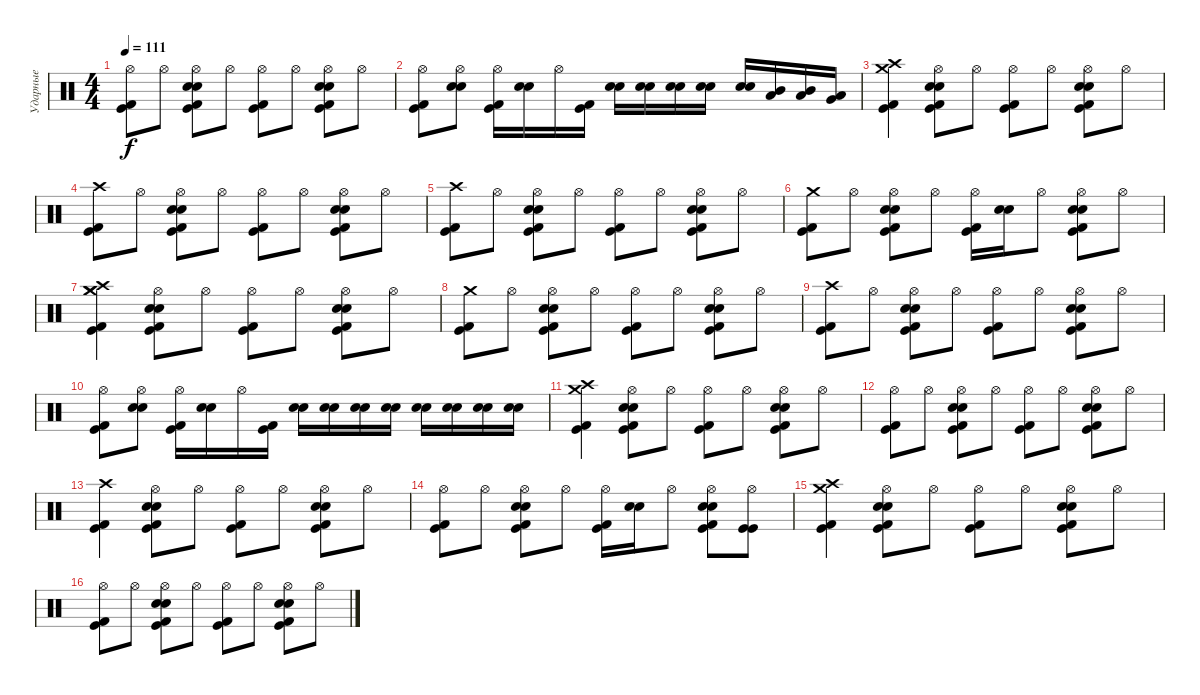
\track ("Ударные" "Ударные") {instrument percussion}
\staff {score}
\articulation defaults
\ts (4 4)
\tempo 111
\clef neutral
\ks c
("Hi-Hat (open)" "Kick (hit)" "Kick (hit) 2").8{dy f} "Hi-Hat (open)".8 ("Hi-Hat (open)" "Kick (hit)" "Kick (hit) 2" "Snare (hit) 2" "Electric Snare (hit)").8 "Hi-Hat (open)".8 ("Hi-Hat (open)" "Kick (hit)" "Kick (hit) 2").8 "Hi-Hat (open)".8 ("Hi-Hat (open)" "Kick (hit)" "Kick (hit) 2" "Snare (hit) 2" "Electric Snare (hit)").8 "Hi-Hat (open)".8 |
("Hi-Hat (open)" "Kick (hit)" "Kick (hit) 2").8 ("Hi-Hat (open)" "Snare (hit) 2" "Electric Snare (hit)").8 ("Hi-Hat (open)" "Kick (hit)" "Kick (hit) 2").16 ("Snare (hit) 2" "Electric Snare (hit)").16 "Hi-Hat (open)".16 ("Kick (hit)" "Kick (hit) 2").16 ("Snare (hit) 2" "Electric Snare (hit)").16 ("Snare (hit) 2" "Electric Snare (hit)").16 ("Snare (hit) 2" "Electric Snare (hit)").16 ("Snare (hit) 2" "Electric Snare (hit)").16 ("Snare (hit) 2" "Electric Snare (hit)").16 ("Mid Tom (hit)" "Low Tom (hit)").16 ("Mid Tom (hit)" "Low Tom (hit)").16 ("Very Low Tom (hit)" "Low Floor Tom (hit)").16 |
("Crash high (hit)" "Kick (hit)" "Kick (hit) 2" "Crash medium (hit)").4 ("Hi-Hat (open)" "Kick (hit)" "Kick (hit) 2" "Snare (hit) 2" "Electric Snare (hit)").8 "Hi-Hat (open)".8 ("Hi-Hat (open)" "Kick (hit)" "Kick (hit) 2").8 "Hi-Hat (open)".8 ("Hi-Hat (open)" "Kick (hit)" "Kick (hit) 2" "Snare (hit) 2" "Electric Snare (hit)").8 "Hi-Hat (open)".8 |
("Crash high (hit)" "Kick (hit)" "Kick (hit) 2").8 "Hi-Hat (open)".8 ("Hi-Hat (open)" "Kick (hit)" "Kick (hit) 2" "Snare (hit) 2" "Electric Snare (hit)").8 "Hi-Hat (open)".8 ("Hi-Hat (open)" "Kick (hit)" "Kick (hit) 2").8 "Hi-Hat (open)".8 ("Hi-Hat (open)" "Kick (hit)" "Kick (hit) 2" "Snare (hit) 2" "Electric Snare (hit)").8 "Hi-Hat (open)".8 |
("Crash high (hit)" "Kick (hit)" "Kick (hit) 2").8 "Hi-Hat (open)".8 ("Hi-Hat (open)" "Kick (hit)" "Kick (hit) 2" "Snare (hit) 2" "Electric Snare (hit)").8 "Hi-Hat (open)".8 ("Hi-Hat (open)" "Kick (hit)" "Kick (hit) 2").8 "Hi-Hat (open)".8 ("Hi-Hat (open)" "Kick (hit)" "Kick (hit) 2" "Snare (hit) 2" "Electric Snare (hit)").8 "Hi-Hat (open)".8 |
("Crash medium (hit)" "Kick (hit)" "Kick (hit) 2").8 "Hi-Hat (open)".8 ("Hi-Hat (open)" "Kick (hit)" "Kick (hit) 2" "Snare (hit) 2" "Electric Snare (hit)").8 "Hi-Hat (open)".8 ("Hi-Hat (open)" "Kick (hit)" "Kick (hit) 2").16 ("Snare (hit) 2" "Electric Snare (hit)").16 "Hi-Hat (open)".8 ("Hi-Hat (open)" "Kick (hit)" "Kick (hit) 2" "Snare (hit) 2" "Electric Snare (hit)").8 "Hi-Hat (open)".8 |
("Crash high (hit)" "Kick (hit)" "Kick (hit) 2" "Crash medium (hit)" "Crash medium (hit)").4 ("Hi-Hat (open)" "Kick (hit)" "Kick (hit) 2" "Snare (hit) 2" "Electric Snare (hit)").8 "Hi-Hat (open)".8 ("Hi-Hat (open)" "Kick (hit)" "Kick (hit) 2").8 "Hi-Hat (open)".8 ("Hi-Hat (open)" "Kick (hit)" "Kick (hit) 2" "Snare (hit) 2" "Electric Snare (hit)").8 "Hi-Hat (open)".8 |
("Crash medium (hit)" "Kick (hit)" "Kick (hit) 2").8 "Hi-Hat (open)".8 ("Hi-Hat (open)" "Kick (hit)" "Kick (hit) 2" "Snare (hit) 2" "Electric Snare (hit)").8 "Hi-Hat (open)".8 ("Hi-Hat (open)" "Kick (hit)" "Kick (hit) 2").8 "Hi-Hat (open)".8 ("Hi-Hat (open)" "Kick (hit)" "Kick (hit) 2" "Snare (hit) 2" "Electric Snare (hit)").8 "Hi-Hat (open)".8 |
("Crash high (hit)" "Kick (hit)" "Kick (hit) 2").8 "Hi-Hat (open)".8 ("Hi-Hat (open)" "Kick (hit)" "Kick (hit) 2" "Snare (hit) 2" "Electric Snare (hit)").8 "Hi-Hat (open)".8 ("Hi-Hat (open)" "Kick (hit)" "Kick (hit) 2").8 "Hi-Hat (open)".8 ("Hi-Hat (open)" "Kick (hit)" "Kick (hit) 2" "Snare (hit) 2" "Electric Snare (hit)").8 "Hi-Hat (open)".8 |
("Hi-Hat (open)" "Kick (hit)" "Kick (hit) 2").8 ("Hi-Hat (open)" "Snare (hit) 2" "Electric Snare (hit)").8 ("Hi-Hat (open)" "Kick (hit)" "Kick (hit) 2").16 ("Snare (hit) 2" "Electric Snare (hit)").16 "Hi-Hat (open)".16 ("Kick (hit)" "Kick (hit) 2").16 ("Snare (hit) 2" "Electric Snare (hit)").16 ("Snare (hit) 2" "Electric Snare (hit)").16 ("Snare (hit) 2" "Electric Snare (hit)").16 ("Snare (hit) 2" "Electric Snare (hit)").16 ("Snare (hit) 2" "Electric Snare (hit)").16 ("Snare (hit) 2" "Electric Snare (hit)").16 ("Snare (hit) 2" "Electric Snare (hit)").16 ("Snare (hit) 2" "Electric Snare (hit)").16 |
("Crash high (hit)" "Kick (hit)" "Kick (hit) 2" "Crash medium (hit)").4 ("Hi-Hat (open)" "Kick (hit)" "Kick (hit) 2" "Snare (hit) 2" "Electric Snare (hit)").8 "Hi-Hat (open)".8 ("Hi-Hat (open)" "Kick (hit)" "Kick (hit) 2").8 "Hi-Hat (open)".8 ("Hi-Hat (open)" "Kick (hit)" "Kick (hit) 2" "Snare (hit) 2" "Electric Snare (hit)").8 "Hi-Hat (open)".8 |
("Hi-Hat (open)" "Kick (hit)" "Kick (hit) 2").8 "Hi-Hat (open)".8 ("Hi-Hat (open)" "Kick (hit)" "Kick (hit) 2" "Snare (hit) 2" "Electric Snare (hit)").8 "Hi-Hat (open)".8 ("Hi-Hat (open)" "Kick (hit)" "Kick (hit) 2").8 "Hi-Hat (open)".8 ("Hi-Hat (open)" "Kick (hit)" "Kick (hit) 2" "Snare (hit) 2" "Electric Snare (hit)").8 "Hi-Hat (open)".8 |
("Crash high (hit)" "Kick (hit)" "Kick (hit) 2").4 ("Hi-Hat (open)" "Kick (hit)" "Kick (hit) 2" "Snare (hit) 2" "Electric Snare (hit)").8 "Hi-Hat (open)".8 ("Hi-Hat (open)" "Kick (hit)" "Kick (hit) 2").8 "Hi-Hat (open)".8 ("Hi-Hat (open)" "Kick (hit)" "Kick (hit) 2" "Snare (hit) 2" "Electric Snare (hit)").8 "Hi-Hat (open)".8 |
("Hi-Hat (open)" "Kick (hit)" "Kick (hit) 2").8 "Hi-Hat (open)".8 ("Hi-Hat (open)" "Kick (hit)" "Kick (hit) 2" "Snare (hit) 2" "Electric Snare (hit)").8 "Hi-Hat (open)".8 ("Hi-Hat (open)" "Kick (hit)" "Kick (hit) 2").16 ("Snare (hit) 2" "Electric Snare (hit)").16 "Hi-Hat (open)".8 ("Hi-Hat (open)" "Kick (hit)" "Kick (hit) 2" "Snare (hit) 2" "Electric Snare (hit)").8 ("Hi-Hat (open)" "Kick (hit)" "Kick (hit)").8 |
("Crash high (hit)" "Kick (hit)" "Kick (hit) 2" "Crash medium (hit)").4 ("Hi-Hat (open)" "Kick (hit)" "Kick (hit) 2" "Snare (hit) 2" "Electric Snare (hit)").8 "Hi-Hat (open)".8 ("Hi-Hat (open)" "Kick (hit)" "Kick (hit) 2").8 "Hi-Hat (open)".8 ("Hi-Hat (open)" "Kick (hit)" "Kick (hit) 2" "Snare (hit) 2" "Electric Snare (hit)").8 "Hi-Hat (open)".8 |
("Hi-Hat (open)" "Kick (hit)" "Kick (hit) 2").8 "Hi-Hat (open)".8 ("Hi-Hat (open)" "Kick (hit)" "Kick (hit) 2" "Snare (hit) 2" "Electric Snare (hit)").8 "Hi-Hat (open)".8 ("Hi-Hat (open)" "Kick (hit)" "Kick (hit) 2").8 "Hi-Hat (open)".8 ("Hi-Hat (open)" "Kick (hit)" "Kick (hit) 2" "Snare (hit) 2" "Electric Snare (hit)").8 "Hi-Hat (open)".8
